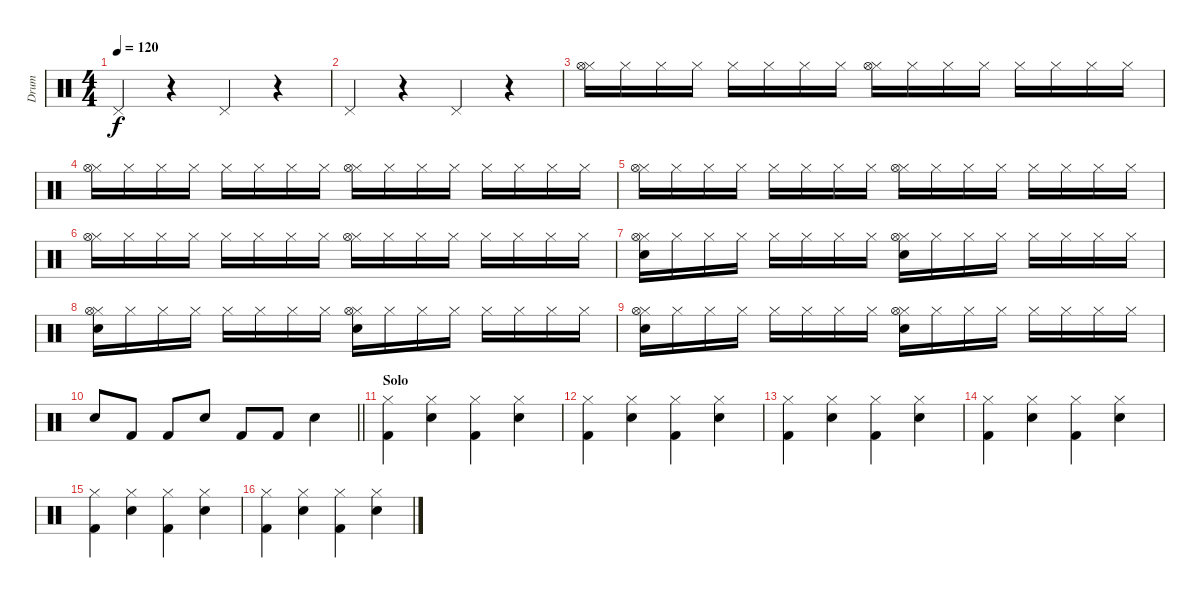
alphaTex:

\track ("Drum" "Drum") {instrument percussion}
\staff {score}
\articulation defaults
\ts (4 4)
\tempo 120
\clef neutral
\ks c "Pedal Hi-Hat (hit)".4{dy f}
r.4 "Pedal Hi-Hat (hit)".4 r.4 |
"Pedal Hi-Hat (hit)".4 r.4 "Pedal Hi-Hat (hit)".4 r.4 |
("Hi-Hat (closed)" "Hi-Hat (open)").16 "Hi-Hat (closed)".16 "Hi-Hat (closed)".16 "Hi-Hat (closed)".16 "Hi-Hat (closed)".16 "Hi-Hat (closed)".16 "Hi-Hat (closed)".16 "Hi-Hat (closed)".16 ("Hi-Hat (closed)" "Hi-Hat (open)").16 "Hi-Hat (closed)".16 "Hi-Hat (closed)".16 "Hi-Hat (closed)".16 "Hi-Hat (closed)".16 "Hi-Hat (closed)".16 "Hi-Hat (closed)".16 "Hi-Hat (closed)".16 |
("Hi-Hat (closed)" "Hi-Hat (open)").16 "Hi-Hat (closed)".16 "Hi-Hat (closed)".16 "Hi-Hat (closed)".16 "Hi-Hat (closed)".16 "Hi-Hat (closed)".16 "Hi-Hat (closed)".16 "Hi-Hat (closed)".16 ("Hi-Hat (closed)" "Hi-Hat (open)").16 "Hi-Hat (closed)".16 "Hi-Hat (closed)".16 "Hi-Hat (closed)".16 "Hi-Hat (closed)".16 "Hi-Hat (closed)".16 "Hi-Hat (closed)".16 "Hi-Hat (closed)".16 |
("Hi-Hat (closed)" "Hi-Hat (open)").16 "Hi-Hat (closed)".16 "Hi-Hat (closed)".16 "Hi-Hat (closed)".16 "Hi-Hat (closed)".16 "Hi-Hat (closed)".16 "Hi-Hat (closed)".16 "Hi-Hat (closed)".16 ("Hi-Hat (closed)" "Hi-Hat (open)").16 "Hi-Hat (closed)".16 "Hi-Hat (closed)".16 "Hi-Hat (closed)".16 "Hi-Hat (closed)".16 "Hi-Hat (closed)".16 "Hi-Hat (closed)".16 "Hi-Hat (closed)".16 |
("Hi-Hat (closed)" "Hi-Hat (open)").16 "Hi-Hat (closed)".16 "Hi-Hat (closed)".16 "Hi-Hat (closed)".16 "Hi-Hat (closed)".16 "Hi-Hat (closed)".16 "Hi-Hat (closed)".16 "Hi-Hat (closed)".16 ("Hi-Hat (closed)" "Hi-Hat (open)").16 "Hi-Hat (closed)".16 "Hi-Hat (closed)".16 "Hi-Hat (closed)".16 "Hi-Hat (closed)".16 "Hi-Hat (closed)".16 "Hi-Hat (closed)".16 "Hi-Hat (closed)".16 |
("Hi-Hat (closed)" "Hi-Hat (open)" "Electric Snare (hit)").16 "Hi-Hat (closed)".16 "Hi-Hat (closed)".16 "Hi-Hat (closed)".16 "Hi-Hat (closed)".16 "Hi-Hat (closed)".16 "Hi-Hat (closed)".16 "Hi-Hat (closed)".16 ("Hi-Hat (closed)" "Hi-Hat (open)" "Electric Snare (hit)").16 "Hi-Hat (closed)".16 "Hi-Hat (closed)".16 "Hi-Hat (closed)".16 "Hi-Hat (closed)".16 "Hi-Hat (closed)".16 "Hi-Hat (closed)".16 "Hi-Hat (closed)".16 |
("Hi-Hat (closed)" "Hi-Hat (open)" "Electric Snare (hit)").16 "Hi-Hat (closed)".16 "Hi-Hat (closed)".16 "Hi-Hat (closed)".16 "Hi-Hat (closed)".16 "Hi-Hat (closed)".16 "Hi-Hat (closed)".16 "Hi-Hat (closed)".16 ("Hi-Hat (closed)" "Hi-Hat (open)" "Electric Snare (hit)").16 "Hi-Hat (closed)".16 "Hi-Hat (closed)".16 "Hi-Hat (closed)".16 "Hi-Hat (closed)".16 "Hi-Hat (closed)".16 "Hi-Hat (closed)".16 "Hi-Hat (closed)".16 |
("Hi-Hat (closed)" "Hi-Hat (open)" "Electric Snare (hit)").16 "Hi-Hat (closed)".16 "Hi-Hat (closed)".16 "Hi-Hat (closed)".16 "Hi-Hat (closed)".16 "Hi-Hat (closed)".16 "Hi-Hat (closed)".16 "Hi-Hat (closed)".16 ("Hi-Hat (closed)" "Hi-Hat (open)" "Electric Snare (hit)").16 "Hi-Hat (closed)".16 "Hi-Hat (closed)".16 "Hi-Hat (closed)".16 "Hi-Hat (closed)".16 "Hi-Hat (closed)".16 "Hi-Hat (closed)".16 "Hi-Hat (closed)".16 |
\barLineRight lightlight "Electric Snare (hit)".8 "Kick (hit) 2".8 "Kick (hit) 2".8 "Electric Snare (hit)".8 "Kick (hit) 2".8 "Kick (hit) 2".8 "Electric Snare (hit)".4
|
\section ("" "Solo")
("Hi-Hat (closed)" "Kick (hit) 2").4 ("Hi-Hat (closed)" "Electric Snare (hit)").4 ("Hi-Hat (closed)" "Kick (hit) 2").4 ("Hi-Hat (closed)" "Electric Snare (hit)").4 |
("Hi-Hat (closed)" "Kick (hit) 2").4 ("Hi-Hat (closed)" "Electric Snare (hit)").4 ("Hi-Hat (closed)" "Kick (hit) 2").4 ("Hi-Hat (closed)" "Electric Snare (hit)").4 |
("Hi-Hat (closed)" "Kick (hit) 2").4 ("Hi-Hat (closed)" "Electric Snare (hit)").4 ("Hi-Hat (closed)" "Kick (hit) 2").4 ("Hi-Hat (closed)" "Electric Snare (hit)").4 |
("Hi-Hat (closed)" "Kick (hit) 2").4 ("Hi-Hat (closed)" "Electric Snare (hit)").4 ("Hi-Hat (closed)" "Kick (hit) 2").4 ("Hi-Hat (closed)" "Electric Snare (hit)").4 |
("Hi-Hat (closed)" "Kick (hit) 2").4 ("Hi-Hat (closed)" "Electric Snare (hit)").4 ("Hi-Hat (closed)" "Kick (hit) 2").4 ("Hi-Hat (closed)" "Electric Snare (hit)").4 |
("Hi-Hat (closed)" "Kick (hit) 2").4 ("Hi-Hat (closed)" "Electric Snare (hit)").4 ("Hi-Hat (closed)" "Kick (hit) 2").4 ("Hi-Hat (closed)" "Electric Snare (hit)").4
